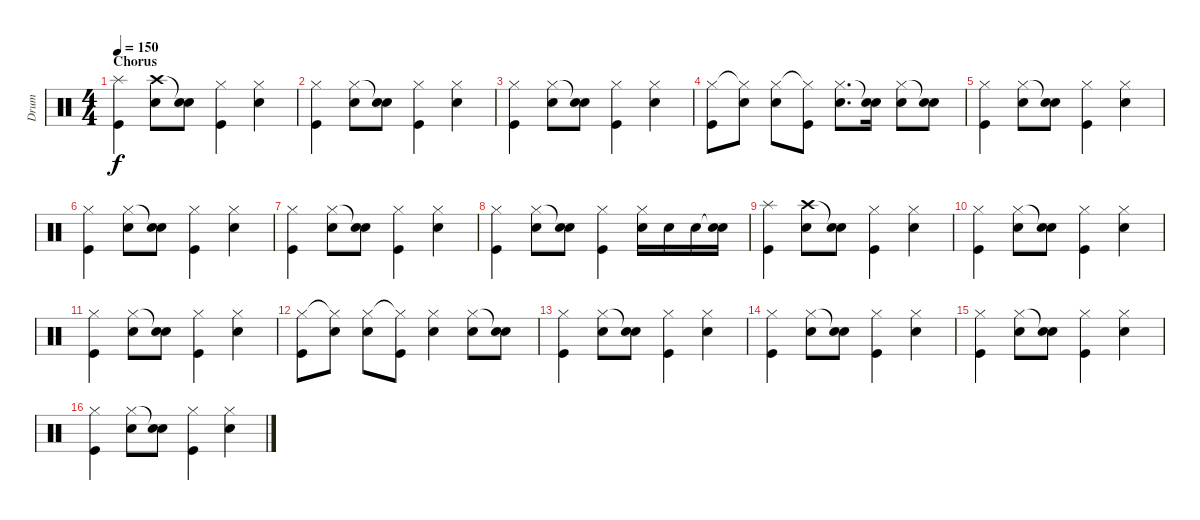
\track ("Drum" "Drum") {instrument percussion}
\staff {score}
\articulation defaults
\ts (4 4)
\section ("" "Chorus")
\tempo 150
\clef neutral
\ks c
("Splash (hit)" "Kick (hit)").4{dy f} ("Crash high (hit)" "Snare (hit) 2").8 ("Snare (hit)"{t} "Snare (hit) 2").8 ("Hi-Hat (closed)" "Kick (hit)").4 ("Hi-Hat (closed)" "Snare (hit) 2").4 |
("Hi-Hat (closed)" "Kick (hit)").4 ("Hi-Hat (closed)" "Snare (hit) 2").8 ("Snare (hit)"{t} "Snare (hit) 2").8 ("Hi-Hat (closed)" "Kick (hit)").4 ("Hi-Hat (closed)" "Snare (hit) 2").4 |
("Hi-Hat (closed)" "Kick (hit)").4 ("Hi-Hat (closed)" "Snare (hit) 2").8 ("Snare (hit)"{t} "Snare (hit) 2").8 ("Hi-Hat (closed)" "Kick (hit)").4 ("Hi-Hat (closed)" "Snare (hit) 2").4 |
("Hi-Hat (closed)" "Kick (hit)").8 ("Hi-Hat (closed)"{t} "Snare (hit) 2").8 ("Hi-Hat (closed)" "Snare (hit) 2").8 ("Hi-Hat (closed)"{t} "Kick (hit)").8 ("Hi-Hat (closed)" "Snare (hit) 2").8{d} ("Snare (hit)"{t} "Snare (hit) 2").16 ("Hi-Hat (closed)" "Snare (hit) 2").8 ("Snare (hit)"{t} "Snare (hit) 2").8 |
("Hi-Hat (closed)" "Kick (hit)").4 ("Hi-Hat (closed)" "Snare (hit) 2").8 ("Snare (hit)"{t} "Snare (hit) 2").8 ("Hi-Hat (closed)" "Kick (hit)").4 ("Hi-Hat (closed)" "Snare (hit) 2").4 |
("Hi-Hat (closed)" "Kick (hit)").4 ("Hi-Hat (closed)" "Snare (hit) 2").8 ("Snare (hit)"{t} "Snare (hit) 2").8 ("Hi-Hat (closed)" "Kick (hit)").4 ("Hi-Hat (closed)" "Snare (hit) 2").4 |
("Hi-Hat (closed)" "Kick (hit)").4 ("Hi-Hat (closed)" "Snare (hit) 2").8 ("Snare (hit)"{t} "Snare (hit) 2").8 ("Hi-Hat (closed)" "Kick (hit)").4 ("Hi-Hat (closed)" "Snare (hit) 2").4 |
("Hi-Hat (closed)" "Kick (hit)").4 ("Hi-Hat (closed)" "Snare (hit) 2").8 ("Snare (hit)"{t} "Snare (hit) 2").8 ("Hi-Hat (closed)" "Kick (hit)").4 ("Hi-Hat (closed)" "Snare (hit) 2").16 "Snare (hit) 2".16 "Snare (hit) 2".16 ("Snare (hit)"{t} "Snare (hit) 2").16 |
("Splash (hit)" "Kick (hit)").4 ("Crash high (hit)" "Snare (hit) 2").8 ("Snare (hit)"{t} "Snare (hit) 2").8 ("Hi-Hat (closed)" "Kick (hit)").4 ("Hi-Hat (closed)" "Snare (hit) 2").4 |
("Hi-Hat (closed)" "Kick (hit)").4 ("Hi-Hat (closed)" "Snare (hit) 2").8 ("Snare (hit)"{t} "Snare (hit) 2").8 ("Hi-Hat (closed)" "Kick (hit)").4 ("Hi-Hat (closed)" "Snare (hit) 2").4 |
("Hi-Hat (closed)" "Kick (hit)").4 ("Hi-Hat (closed)" "Snare (hit) 2").8 ("Snare (hit)"{t} "Snare (hit) 2").8 ("Hi-Hat (closed)" "Kick (hit)").4 ("Hi-Hat (closed)" "Snare (hit) 2").4 |
("Hi-Hat (closed)" "Kick (hit)").8 ("Hi-Hat (closed)"{t} "Snare (hit) 2").8 ("Hi-Hat (closed)" "Snare (hit) 2").8 ("Hi-Hat (closed)"{t} "Kick (hit)").8 ("Hi-Hat (closed)" "Snare (hit) 2").4 ("Hi-Hat (closed)" "Snare (hit) 2").8 ("Snare (hit)"{t} "Snare (hit) 2").8 |
("Hi-Hat (closed)" "Kick (hit)").4 ("Hi-Hat (closed)" "Snare (hit) 2").8 ("Snare (hit)"{t} "Snare (hit) 2").8 ("Hi-Hat (closed)" "Kick (hit)").4 ("Hi-Hat (closed)" "Snare (hit) 2").4 |
("Hi-Hat (closed)" "Kick (hit)").4 ("Hi-Hat (closed)" "Snare (hit) 2").8 ("Snare (hit)"{t} "Snare (hit) 2").8 ("Hi-Hat (closed)" "Kick (hit)").4 ("Hi-Hat (closed)" "Snare (hit) 2").4 |
("Hi-Hat (closed)" "Kick (hit)").4 ("Hi-Hat (closed)" "Snare (hit) 2").8 ("Snare (hit)"{t} "Snare (hit) 2").8 ("Hi-Hat (closed)" "Kick (hit)").4 ("Hi-Hat (closed)" "Snare (hit) 2").4 |
("Hi-Hat (closed)" "Kick (hit)").4 ("Hi-Hat (closed)" "Snare (hit) 2").8 ("Snare (hit)"{t} "Snare (hit) 2").8 ("Hi-Hat (closed)" "Kick (hit)").4 ("Hi-Hat (closed)" "Snare (hit) 2").4
